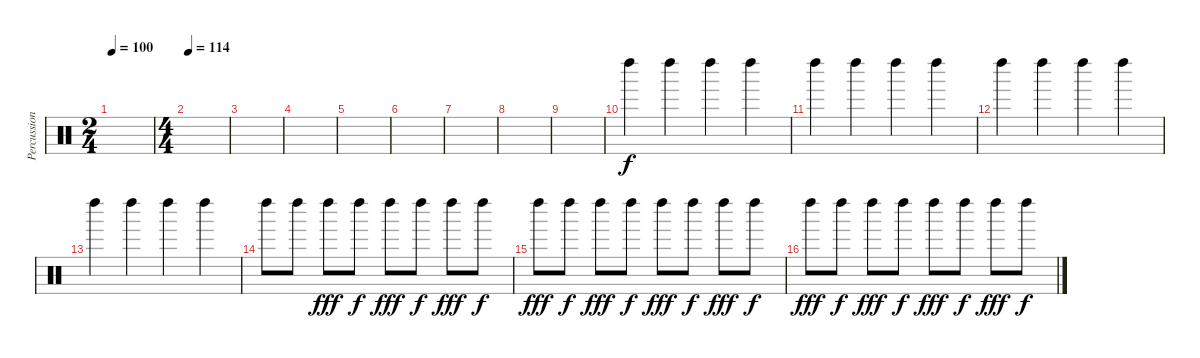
\track ("Percussion" "Percussion") {instrument percussion}
\staff {score}
\articulation defaults
\ts (2 4)
\tempo 100
\clef neutral
\ks c
|
\ts (4 4)
\tempo 114
|
|
|
|
|
|
|
|
"Left Maraca (hit)".4 "Left Maraca (hit)".4 "Left Maraca (hit)".4 "Left Maraca (hit)".4 |
"Left Maraca (hit)".4 "Left Maraca (hit)".4 "Left Maraca (hit)".4 "Left Maraca (hit)".4 |
"Left Maraca (hit)".4 "Left Maraca (hit)".4 "Left Maraca (hit)".4 "Left Maraca (hit)".4 |
"Left Maraca (hit)".4 "Left Maraca (hit)".4 "Left Maraca (hit)".4 "Left Maraca (hit)".4 |
"Left Maraca (hit)".8 "Left Maraca (hit)".8{dy f} "Left Maraca (hit)".8{dy fff} "Left Maraca (hit)".8{dy f} "Left Maraca (hit)".8{dy fff} "Left Maraca (hit)".8{dy f} "Left Maraca (hit)".8{dy fff} "Left Maraca (hit)".8{dy f} |
"Left Maraca (hit)".8{dy fff} "Left Maraca (hit)".8{dy f} "Left Maraca (hit)".8{dy fff} "Left Maraca (hit)".8{dy f} "Left Maraca (hit)".8{dy fff} "Left Maraca (hit)".8{dy f} "Left Maraca (hit)".8{dy fff} "Left Maraca (hit)".8{dy f} |
"Left Maraca (hit)".8{dy fff} "Left Maraca (hit)".8{dy f} "Left Maraca (hit)".8{dy fff} "Left Maraca (hit)".8{dy f} "Left Maraca (hit)".8{dy fff} "Left Maraca (hit)".8{dy f} "Left Maraca (hit)".8{dy fff} "Left Maraca (hit)".8{dy f}
